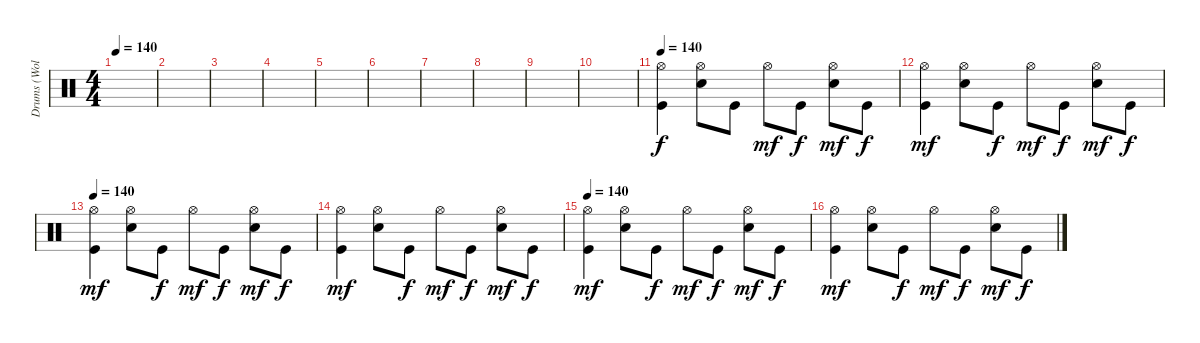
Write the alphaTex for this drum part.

\track ("Drums (Wolf Simons)" "Drums (Wol") {instrument percussion}
\staff {score}
\articulation defaults
\ts (4 4)
\tempo 140
\tempo 120
\tempo 140
\clef neutral
\ks c
|
|
|
|
|
|
|
|
|
|
\tempo 140
("Kick (hit)" "Hi-Hat (open)").4 ("Electric Snare (hit)" "Hi-Hat (open)").8 "Kick (hit)".8{dy f} "Hi-Hat (open)".8{dy mf} "Kick (hit)".8{dy f} ("Electric Snare (hit)" "Hi-Hat (open)").8{dy mf} "Kick (hit)".8{dy f} |
("Kick (hit)" "Hi-Hat (open)").4{dy mf} ("Electric Snare (hit)" "Hi-Hat (open)").8 "Kick (hit)".8{dy f} "Hi-Hat (open)".8{dy mf} "Kick (hit)".8{dy f} ("Electric Snare (hit)" "Hi-Hat (open)").8{dy mf} "Kick (hit)".8{dy f} |
\tempo 140
("Kick (hit)" "Hi-Hat (open)").4{dy mf} ("Electric Snare (hit)" "Hi-Hat (open)").8 "Kick (hit)".8{dy f} "Hi-Hat (open)".8{dy mf} "Kick (hit)".8{dy f} ("Electric Snare (hit)" "Hi-Hat (open)").8{dy mf} "Kick (hit)".8{dy f} |
("Kick (hit)" "Hi-Hat (open)").4{dy mf} ("Electric Snare (hit)" "Hi-Hat (open)").8 "Kick (hit)".8{dy f} "Hi-Hat (open)".8{dy mf} "Kick (hit)".8{dy f} ("Electric Snare (hit)" "Hi-Hat (open)").8{dy mf} "Kick (hit)".8{dy f} |
\tempo 140
("Kick (hit)" "Hi-Hat (open)").4{dy mf} ("Electric Snare (hit)" "Hi-Hat (open)").8 "Kick (hit)".8{dy f} "Hi-Hat (open)".8{dy mf} "Kick (hit)".8{dy f} ("Electric Snare (hit)" "Hi-Hat (open)").8{dy mf} "Kick (hit)".8{dy f} |
("Kick (hit)" "Hi-Hat (open)").4{dy mf} ("Electric Snare (hit)" "Hi-Hat (open)").8 "Kick (hit)".8{dy f} "Hi-Hat (open)".8{dy mf} "Kick (hit)".8{dy f} ("Electric Snare (hit)" "Hi-Hat (open)").8{dy mf} "Kick (hit)".8{dy f}
